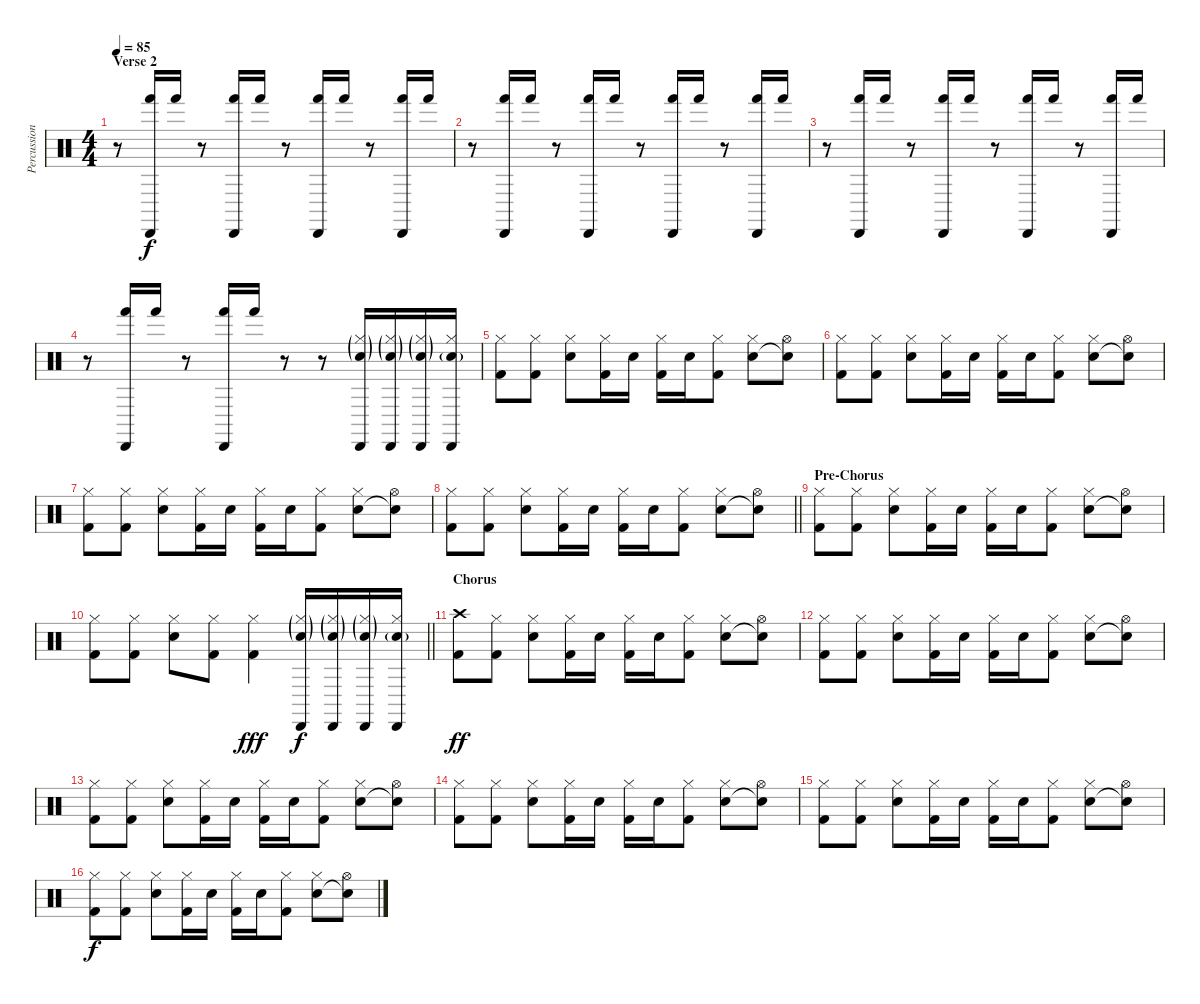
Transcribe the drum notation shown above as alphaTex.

\track ("Percussion" "Percussion") {instrument percussion}
\staff {score}
\articulation defaults
\ts (4 4)
\section ("" "Verse 2")
\tempo 85
\clef neutral
\ks c
r.8{dy ff} ("Cabasa (hit)" "Hand (hit)").16{dy f} "Hand (hit)".16 r.8 ("Cabasa (hit)" "Hand (hit)").16 "Hand (hit)".16 r.8 ("Cabasa (hit)" "Hand (hit)").16 "Hand (hit)".16 r.8 ("Cabasa (hit)" "Hand (hit)").16 "Hand (hit)".16 |
r.8 ("Cabasa (hit)" "Hand (hit)").16 "Hand (hit)".16 r.8 ("Cabasa (hit)" "Hand (hit)").16 "Hand (hit)".16 r.8 ("Cabasa (hit)" "Hand (hit)").16 "Hand (hit)".16 r.8 ("Cabasa (hit)" "Hand (hit)").16 "Hand (hit)".16 |
r.8 ("Cabasa (hit)" "Hand (hit)").16 "Hand (hit)".16 r.8 ("Cabasa (hit)" "Hand (hit)").16 "Hand (hit)".16 r.8 ("Cabasa (hit)" "Hand (hit)").16 "Hand (hit)".16 r.8 ("Cabasa (hit)" "Hand (hit)").16 "Hand (hit)".16 |
r.8 ("Cabasa (hit)" "Hand (hit)").16 "Hand (hit)".16 r.8 ("Cabasa (hit)" "Hand (hit)").16 "Hand (hit)".16 r.8 r.8 ("Hi-Hat (closed)"{g} "Cabasa (hit)" "Electric Snare (hit)"{g}).16 ("Hi-Hat (closed)"{g} "Cabasa (hit)" "Electric Snare (hit)"{g}).16 ("Hi-Hat (closed)"{g} "Cabasa (hit)" "Electric Snare (hit)"{g}).16 ("Hi-Hat (closed)" "Cabasa (hit)" "Electric Snare (hit)"{g}).16 |
("Hi-Hat (closed)" "Kick (hit) 2").8 ("Hi-Hat (closed)" "Kick (hit) 2").8 ("Hi-Hat (closed)" "Electric Snare (hit)").8 ("Hi-Hat (closed)" "Kick (hit) 2").16 "Electric Snare (hit)".16 ("Hi-Hat (closed)" "Kick (hit) 2").16 "Electric Snare (hit)".16 ("Hi-Hat (closed)" "Kick (hit) 2").8 ("Hi-Hat (closed)" "Electric Snare (hit)").8 ("Hi-Hat (open)" "Snare (hit)"{t}).8 |
("Hi-Hat (closed)" "Kick (hit) 2").8 ("Hi-Hat (closed)" "Kick (hit) 2").8 ("Hi-Hat (closed)" "Electric Snare (hit)").8 ("Hi-Hat (closed)" "Kick (hit) 2").16 "Electric Snare (hit)".16 ("Hi-Hat (closed)" "Kick (hit) 2").16 "Electric Snare (hit)".16 ("Hi-Hat (closed)" "Kick (hit) 2").8 ("Hi-Hat (closed)" "Electric Snare (hit)").8 ("Hi-Hat (open)" "Snare (hit)"{t}).8 |
("Hi-Hat (closed)" "Kick (hit) 2").8 ("Hi-Hat (closed)" "Kick (hit) 2").8 ("Hi-Hat (closed)" "Electric Snare (hit)").8 ("Hi-Hat (closed)" "Kick (hit) 2").16 "Electric Snare (hit)".16 ("Hi-Hat (closed)" "Kick (hit) 2").16 "Electric Snare (hit)".16 ("Hi-Hat (closed)" "Kick (hit) 2").8 ("Hi-Hat (closed)" "Electric Snare (hit)").8 ("Hi-Hat (open)" "Snare (hit)"{t}).8 |
\barLineRight lightlight
("Hi-Hat (closed)" "Kick (hit) 2").8 ("Hi-Hat (closed)" "Kick (hit) 2").8 ("Hi-Hat (closed)" "Electric Snare (hit)").8 ("Hi-Hat (closed)" "Kick (hit) 2").16 "Electric Snare (hit)".16 ("Hi-Hat (closed)" "Kick (hit) 2").16 "Electric Snare (hit)".16 ("Hi-Hat (closed)" "Kick (hit) 2").8 ("Hi-Hat (closed)" "Electric Snare (hit)").8 ("Hi-Hat (open)" "Snare (hit)"{t}).8 |
\section ("" "Pre-Chorus")
("Hi-Hat (closed)" "Kick (hit) 2").8 ("Hi-Hat (closed)" "Kick (hit) 2").8 ("Hi-Hat (closed)" "Electric Snare (hit)").8 ("Hi-Hat (closed)" "Kick (hit) 2").16 "Electric Snare (hit)".16 ("Hi-Hat (closed)" "Kick (hit) 2").16 "Electric Snare (hit)".16 ("Hi-Hat (closed)" "Kick (hit) 2").8 ("Hi-Hat (closed)" "Electric Snare (hit)").8 ("Hi-Hat (open)" "Snare (hit)"{t}).8 |
\barLineRight lightlight
("Hi-Hat (closed)" "Kick (hit) 2").8 ("Hi-Hat (closed)" "Kick (hit) 2").8 ("Hi-Hat (closed)" "Electric Snare (hit)").8 ("Hi-Hat (closed)" "Kick (hit) 2").8 ("Hi-Hat (closed)" "Kick (hit) 2").4{dy fff} ("Hi-Hat (closed)"{g} "Cabasa (hit)" "Electric Snare (hit)"{g}).16{dy f} ("Hi-Hat (closed)"{g} "Cabasa (hit)" "Electric Snare (hit)"{g}).16 ("Hi-Hat (closed)"{g} "Cabasa (hit)" "Electric Snare (hit)"{g}).16 ("Hi-Hat (closed)" "Cabasa (hit)" "Electric Snare (hit)"{g}).16 |
\section ("" "Chorus")
("Crash high (hit)" "Kick (hit) 2").8{dy ff} ("Hi-Hat (closed)" "Kick (hit) 2").8 ("Hi-Hat (closed)" "Electric Snare (hit)").8 ("Hi-Hat (closed)" "Kick (hit) 2").16 "Electric Snare (hit)".16 ("Hi-Hat (closed)" "Kick (hit) 2").16 "Electric Snare (hit)".16 ("Hi-Hat (closed)" "Kick (hit) 2").8 ("Hi-Hat (closed)" "Electric Snare (hit)").8 ("Hi-Hat (open)" "Snare (hit)"{t}).8 |
("Hi-Hat (closed)" "Kick (hit) 2").8 ("Hi-Hat (closed)" "Kick (hit) 2").8 ("Hi-Hat (closed)" "Electric Snare (hit)").8 ("Hi-Hat (closed)" "Kick (hit) 2").16 "Electric Snare (hit)".16 ("Hi-Hat (closed)" "Kick (hit) 2").16 "Electric Snare (hit)".16 ("Hi-Hat (closed)" "Kick (hit) 2").8 ("Hi-Hat (closed)" "Electric Snare (hit)").8 ("Hi-Hat (open)" "Snare (hit)"{t}).8 |
("Hi-Hat (closed)" "Kick (hit) 2").8 ("Hi-Hat (closed)" "Kick (hit) 2").8 ("Hi-Hat (closed)" "Electric Snare (hit)").8 ("Hi-Hat (closed)" "Kick (hit) 2").16 "Electric Snare (hit)".16 ("Hi-Hat (closed)" "Kick (hit) 2").16 "Electric Snare (hit)".16 ("Hi-Hat (closed)" "Kick (hit) 2").8 ("Hi-Hat (closed)" "Electric Snare (hit)").8 ("Hi-Hat (open)" "Snare (hit)"{t}).8 |
("Hi-Hat (closed)" "Kick (hit) 2").8 ("Hi-Hat (closed)" "Kick (hit) 2").8 ("Hi-Hat (closed)" "Electric Snare (hit)").8 ("Hi-Hat (closed)" "Kick (hit) 2").16 "Electric Snare (hit)".16 ("Hi-Hat (closed)" "Kick (hit) 2").16 "Electric Snare (hit)".16 ("Hi-Hat (closed)" "Kick (hit) 2").8 ("Hi-Hat (closed)" "Electric Snare (hit)").8 ("Hi-Hat (open)" "Snare (hit)"{t}).8 |
("Hi-Hat (closed)" "Kick (hit) 2").8 ("Hi-Hat (closed)" "Kick (hit) 2").8 ("Hi-Hat (closed)" "Electric Snare (hit)").8 ("Hi-Hat (closed)" "Kick (hit) 2").16 "Electric Snare (hit)".16 ("Hi-Hat (closed)" "Kick (hit) 2").16 "Electric Snare (hit)".16 ("Hi-Hat (closed)" "Kick (hit) 2").8 ("Hi-Hat (closed)" "Electric Snare (hit)").8 ("Hi-Hat (open)" "Snare (hit)"{t}).8 |
("Hi-Hat (closed)" "Kick (hit) 2").8{dy f} ("Hi-Hat (closed)" "Kick (hit) 2").8 ("Hi-Hat (closed)" "Electric Snare (hit)").8 ("Hi-Hat (closed)" "Kick (hit) 2").16 "Electric Snare (hit)".16 ("Hi-Hat (closed)" "Kick (hit) 2").16 "Electric Snare (hit)".16 ("Hi-Hat (closed)" "Kick (hit) 2").8 ("Hi-Hat (closed)" "Electric Snare (hit)").8 ("Hi-Hat (open)" "Snare (hit)"{t}).8
